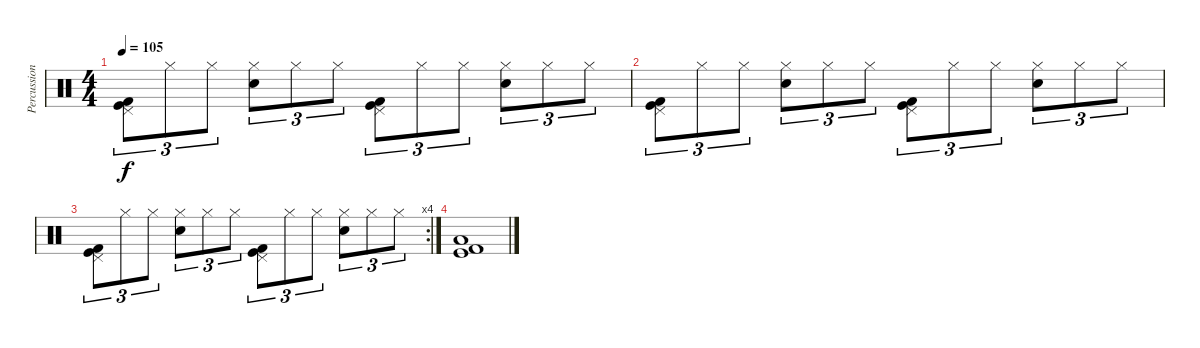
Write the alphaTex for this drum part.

\track ("Percussion" "Percussion") {instrument percussion}
\staff {score}
\articulation defaults
\ts (4 4)
\tempo 105
\clef neutral
\ks c
("Pedal Hi-Hat (hit)" "Kick (hit)" "Kick (hit) 2").8{tu (3 2) dy f} "Hi-Hat (closed)".8{tu (3 2)} "Hi-Hat (closed)".8{tu (3 2)} ("Hi-Hat (closed)" "Snare (hit) 2").8{tu (3 2)} "Hi-Hat (closed)".8{tu (3 2)} "Hi-Hat (closed)".8{tu (3 2)} ("Pedal Hi-Hat (hit)" "Kick (hit)" "Kick (hit) 2").8{tu (3 2)} "Hi-Hat (closed)".8{tu (3 2)} "Hi-Hat (closed)".8{tu (3 2)} ("Hi-Hat (closed)" "Snare (hit) 2").8{tu (3 2)} "Hi-Hat (closed)".8{tu (3 2)} "Hi-Hat (closed)".8{tu (3 2)} |
("Pedal Hi-Hat (hit)" "Kick (hit)" "Kick (hit) 2").8{tu (3 2)} "Hi-Hat (closed)".8{tu (3 2)} "Hi-Hat (closed)".8{tu (3 2)} ("Hi-Hat (closed)" "Snare (hit) 2").8{tu (3 2)} "Hi-Hat (closed)".8{tu (3 2)} "Hi-Hat (closed)".8{tu (3 2)} ("Pedal Hi-Hat (hit)" "Kick (hit)" "Kick (hit) 2").8{tu (3 2)} "Hi-Hat (closed)".8{tu (3 2)} "Hi-Hat (closed)".8{tu (3 2)} ("Hi-Hat (closed)" "Snare (hit) 2").8{tu (3 2)} "Hi-Hat (closed)".8{tu (3 2)} "Hi-Hat (closed)".8{tu (3 2)} |
\rc 4
("Pedal Hi-Hat (hit)" "Kick (hit)" "Kick (hit) 2").8{tu (3 2)} "Hi-Hat (closed)".8{tu (3 2)} "Hi-Hat (closed)".8{tu (3 2)} ("Hi-Hat (closed)" "Snare (hit) 2").8{tu (3 2)} "Hi-Hat (closed)".8{tu (3 2)} "Hi-Hat (closed)".8{tu (3 2)} ("Pedal Hi-Hat (hit)" "Kick (hit)" "Kick (hit) 2").8{tu (3 2)} "Hi-Hat (closed)".8{tu (3 2)} "Hi-Hat (closed)".8{tu (3 2)} ("Hi-Hat (closed)" "Snare (hit) 2").8{tu (3 2)} "Hi-Hat (closed)".8{tu (3 2)} "Hi-Hat (closed)".8{tu (3 2)} |
("Low Floor Tom (hit)" "Kick (hit)" "Kick (hit) 2").1
